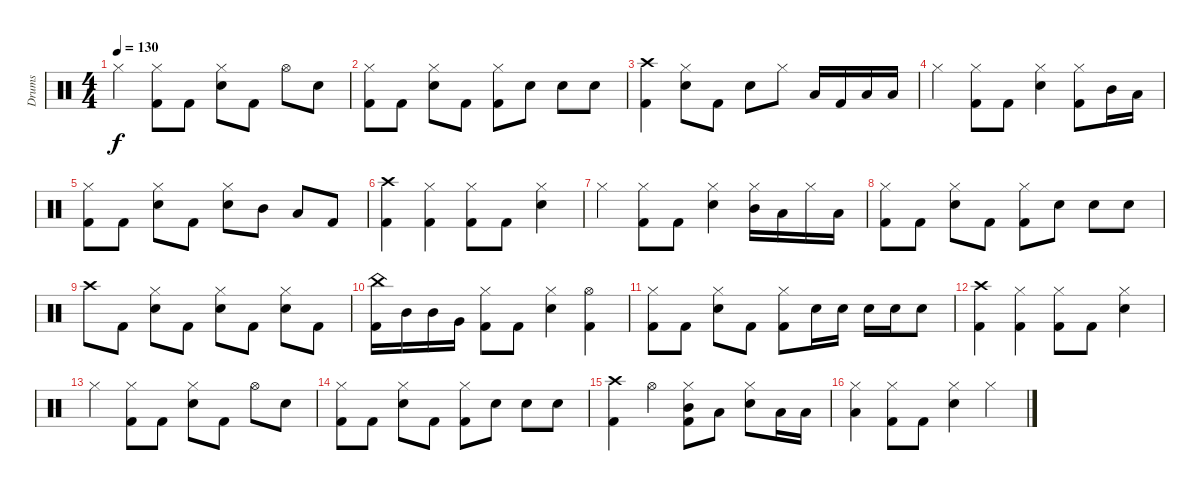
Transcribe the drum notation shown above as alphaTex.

\track ("Drums" "Drums") {instrument percussion}
\staff {score}
\articulation defaults
\ts (4 4)
\tempo 130
\clef neutral
\ks c "Hi-Hat (closed)".4{dy f}
("Hi-Hat (closed)" "Kick (hit) 2").8 "Kick (hit) 2".8 ("Hi-Hat (closed)" "Snare (hit) 2").8 "Kick (hit) 2".8 "Hi-Hat (open)".8 "Snare (hit) 2".8 |
("Hi-Hat (closed)" "Kick (hit) 2").8 "Kick (hit) 2".8 ("Hi-Hat (closed)" "Snare (hit) 2").8 "Kick (hit) 2".8 ("Hi-Hat (closed)" "Kick (hit) 2").8 "Snare (hit) 2".8 "Snare (hit) 2".8 "Snare (hit) 2".8 |
("Crash high (hit)" "Kick (hit) 2").4 ("Hi-Hat (closed)" "Snare (hit) 2").8 "Kick (hit) 2".8 "Snare (hit) 2".8 "Hi-Hat (closed)".8 "Low Tom (hit)".16 "Kick (hit) 2".16 "Low Floor Tom (hit)".16 "Low Floor Tom (hit)".16 |
"Hi-Hat (closed)".4 ("Hi-Hat (closed)" "Kick (hit) 2").8 "Kick (hit) 2".8 ("Hi-Hat (closed)" "Snare (hit) 2").4 ("Hi-Hat (closed)" "Kick (hit) 2").8 "Mid Tom (hit)".16 "Low Tom (hit)".16 |
("Hi-Hat (closed)" "Kick (hit) 2").8 "Kick (hit) 2".8 ("Hi-Hat (closed)" "Snare (hit) 2").8 "Kick (hit) 2".8 ("Hi-Hat (closed)" "Snare (hit) 2").8 "Mid Tom (hit)".8 "Low Tom (hit)".8 "Kick (hit) 2".8 |
("Crash high (hit)" "Kick (hit) 2").4 ("Hi-Hat (closed)" "Kick (hit) 2").4 ("Hi-Hat (closed)" "Kick (hit) 2").8 "Kick (hit) 2".8 ("Hi-Hat (closed)" "Snare (hit) 2").4 |
"Hi-Hat (closed)".4 ("Hi-Hat (closed)" "Kick (hit) 2").8 "Kick (hit) 2".8 ("Hi-Hat (closed)" "Snare (hit) 2").4 ("Hi-Hat (closed)" "Mid Tom (hit)").16 "Low Tom (hit)".16 "Hi-Hat (closed)".16 "Low Floor Tom (hit)".16 |
("Hi-Hat (closed)" "Kick (hit) 2").8 "Kick (hit) 2".8 ("Hi-Hat (closed)" "Snare (hit) 2").8 "Kick (hit) 2".8 ("Hi-Hat (closed)" "Kick (hit) 2").8 "Snare (hit) 2".8 "Snare (hit) 2".8 "Snare (hit) 2".8 |
"Crash high (hit)".8 "Kick (hit) 2".8 ("Hi-Hat (closed)" "Snare (hit) 2").8 "Kick (hit) 2".8 ("Hi-Hat (closed)" "Snare (hit) 2").8 "Kick (hit) 2".8 ("Hi-Hat (closed)" "Snare (hit) 2").8 "Kick (hit) 2".8 |
("China (hit)" "Kick (hit) 2").16 "Mid Tom (hit)".16 "Mid Tom (hit)".16 "Very Low Tom (hit)".16 ("Hi-Hat (closed)" "Kick (hit) 2").8 "Kick (hit) 2".8 ("Hi-Hat (closed)" "Snare (hit) 2").4 ("Hi-Hat (open)" "Kick (hit) 2").4 |
("Hi-Hat (closed)" "Kick (hit) 2").8 "Kick (hit) 2".8 ("Hi-Hat (closed)" "Snare (hit) 2").8 "Kick (hit) 2".8 ("Hi-Hat (closed)" "Kick (hit) 2").8 "Snare (hit) 2".16 "Snare (hit) 2".16 "Snare (hit) 2".16 "Snare (hit) 2".16 "Snare (hit) 2".8 |
("Crash high (hit)" "Kick (hit) 2").4 ("Hi-Hat (closed)" "Kick (hit) 2").4 ("Hi-Hat (closed)" "Kick (hit) 2").8 "Kick (hit) 2".8 ("Hi-Hat (closed)" "Snare (hit) 2").4 |
"Hi-Hat (closed)".4 ("Hi-Hat (closed)" "Kick (hit) 2").8 "Kick (hit) 2".8 ("Hi-Hat (closed)" "Snare (hit) 2").8 "Kick (hit) 2".8 "Hi-Hat (open)".8 "Snare (hit) 2".8 |
("Hi-Hat (closed)" "Kick (hit) 2").8 "Kick (hit) 2".8 ("Hi-Hat (closed)" "Snare (hit) 2").8 "Kick (hit) 2".8 ("Hi-Hat (closed)" "Kick (hit) 2").8 "Snare (hit) 2".8 "Snare (hit) 2".8 "Snare (hit) 2".8 |
("Crash high (hit)" "Kick (hit) 2").4 "Hi-Hat (open)".4 ("Hi-Hat (closed)" "Mid Tom (hit)" "Kick (hit) 2").8 "Low Tom (hit)".8 ("Hi-Hat (closed)" "Snare (hit) 2").8 "Low Floor Tom (hit)".16 "Low Floor Tom (hit)".16 |
("Hi-Hat (closed)" "Low Floor Tom (hit)").4 ("Hi-Hat (closed)" "Kick (hit) 2").8 "Kick (hit) 2".8 ("Hi-Hat (closed)" "Snare (hit) 2").4 "Hi-Hat (closed)".4
